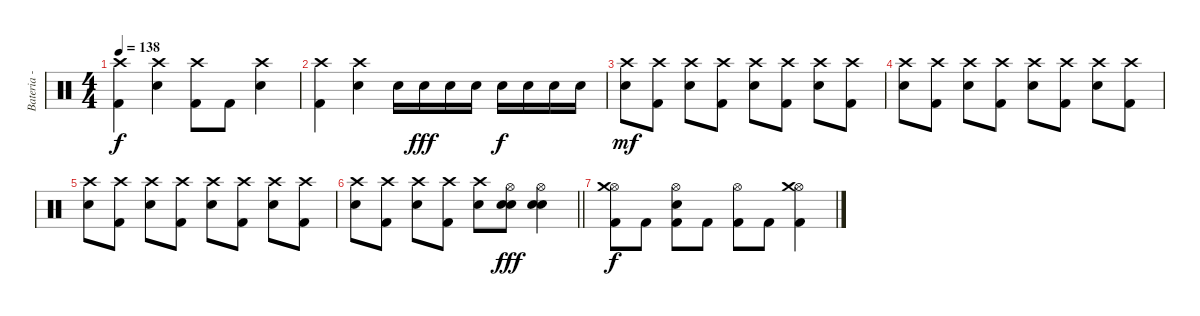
\track ("Bateria - Larzon" "Bateria - ") {instrument percussion}
\staff {score}
\articulation defaults
\ts (4 4)
\tempo 138
\clef neutral
\ks c
("Kick (hit) 2" "Crash high (hit)").4{dy f} ("Electric Snare (hit)" "Crash high (hit)").4 ("Kick (hit) 2" "Crash high (hit)").8 "Kick (hit) 2".8 ("Electric Snare (hit)" "Crash high (hit)").4 |
("Kick (hit) 2" "Crash high (hit)").4 ("Electric Snare (hit)" "Crash high (hit)").4 "Electric Snare (hit)".16 "Electric Snare (hit)".16{dy fff} "Electric Snare (hit)".16 "Electric Snare (hit)".16 "Electric Snare (hit)".16{dy f} "Electric Snare (hit)".16 "Electric Snare (hit)".16 "Electric Snare (hit)".16 |
("Electric Snare (hit)" "Crash high (hit)").8{dy mf} ("Kick (hit) 2" "Crash high (hit)").8 ("Electric Snare (hit)" "Crash high (hit)").8 ("Kick (hit) 2" "Crash high (hit)").8 ("Electric Snare (hit)" "Crash high (hit)").8 ("Kick (hit) 2" "Crash high (hit)").8 ("Electric Snare (hit)" "Crash high (hit)").8 ("Kick (hit) 2" "Crash high (hit)").8 |
("Electric Snare (hit)" "Crash high (hit)").8 ("Kick (hit) 2" "Crash high (hit)").8 ("Electric Snare (hit)" "Crash high (hit)").8 ("Kick (hit) 2" "Crash high (hit)").8 ("Electric Snare (hit)" "Crash high (hit)").8 ("Kick (hit) 2" "Crash high (hit)").8 ("Electric Snare (hit)" "Crash high (hit)").8 ("Kick (hit) 2" "Crash high (hit)").8 |
("Electric Snare (hit)" "Crash high (hit)").8 ("Kick (hit) 2" "Crash high (hit)").8 ("Electric Snare (hit)" "Crash high (hit)").8 ("Kick (hit) 2" "Crash high (hit)").8 ("Electric Snare (hit)" "Crash high (hit)").8 ("Kick (hit) 2" "Crash high (hit)").8 ("Electric Snare (hit)" "Crash high (hit)").8 ("Kick (hit) 2" "Crash high (hit)").8 |
\barLineRight lightlight
("Electric Snare (hit)" "Crash high (hit)").8 ("Kick (hit) 2" "Crash high (hit)").8 ("Electric Snare (hit)" "Crash high (hit)").8 ("Kick (hit) 2" "Crash high (hit)").8 ("Electric Snare (hit)" "Crash high (hit)").8 ("Electric Snare (hit)" "Electric Snare (hit)" "Hi-Hat (open)").8{dy fff} ("Electric Snare (hit)" "Electric Snare (hit)" "Hi-Hat (open)").4 |
("Hi-Hat (open)" "Crash medium (hit)" "Kick (hit) 2").8{dy f} "Kick (hit) 2".8 ("Hi-Hat (open)" "Electric Snare (hit)" "Kick (hit) 2").8 "Kick (hit) 2".8 ("Hi-Hat (open)" "Kick (hit) 2").8 "Kick (hit) 2".8 ("Hi-Hat (open)" "Crash medium (hit)" "Kick (hit) 2").4
